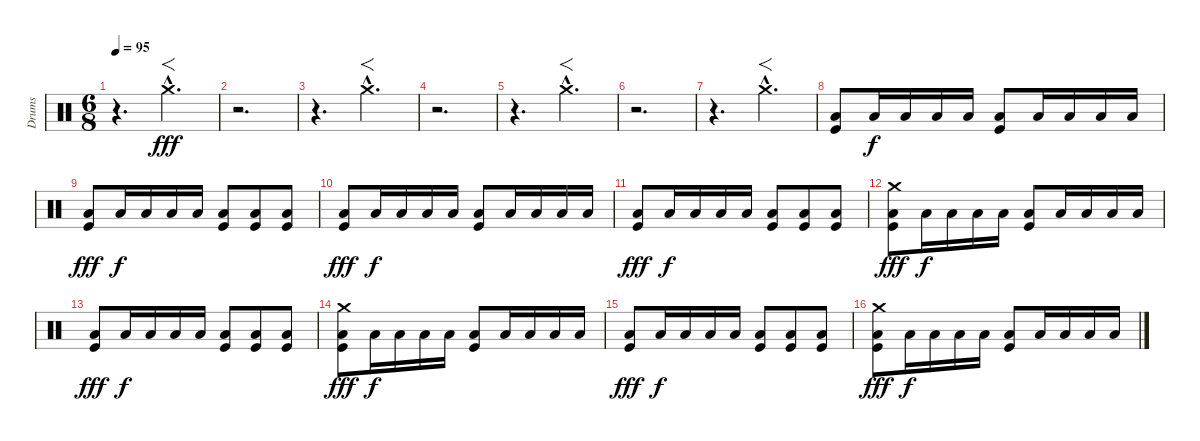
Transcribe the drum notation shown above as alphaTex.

\track ("Drums" "Drums") {instrument percussion}
\staff {score}
\articulation defaults
\ts (6 8)
\tempo 95
\clef neutral
\ks c
r.4{d dy fff} "Crash medium (hit)"{hac}.4{f d} |
r.2{d} |
r.4{d} "Crash medium (hit)"{hac}.4{f d} |
r.2{d} |
r.4{d} "Crash medium (hit)"{hac}.4{f d} |
r.2{d} |
r.4{d} "Crash medium (hit)"{hac}.4{f d} |
("Low Tom (hit)" "Kick (hit)").8 "Low Tom (hit)".16{dy f} "Low Tom (hit)".16 "Low Tom (hit)".16 "Low Tom (hit)".16 ("Low Tom (hit)" "Kick (hit)").8 "Low Tom (hit)".16 "Low Tom (hit)".16 "Low Tom (hit)".16 "Low Tom (hit)".16 |
("Low Tom (hit)" "Kick (hit)").8{dy fff} "Low Tom (hit)".16{dy f} "Low Tom (hit)".16 "Low Tom (hit)".16 "Low Tom (hit)".16 ("Low Tom (hit)" "Kick (hit)").8 ("Low Tom (hit)" "Kick (hit)").8 ("Low Tom (hit)" "Kick (hit)").8 |
("Low Tom (hit)" "Kick (hit)").8{dy fff} "Low Tom (hit)".16{dy f} "Low Tom (hit)".16 "Low Tom (hit)".16 "Low Tom (hit)".16 ("Low Tom (hit)" "Kick (hit)").8 "Low Tom (hit)".16 "Low Tom (hit)".16 "Low Tom (hit)".16 "Low Tom (hit)".16 |
("Low Tom (hit)" "Kick (hit)").8{dy fff} "Low Tom (hit)".16{dy f} "Low Tom (hit)".16 "Low Tom (hit)".16 "Low Tom (hit)".16 ("Low Tom (hit)" "Kick (hit)").8 ("Low Tom (hit)" "Kick (hit)").8 ("Low Tom (hit)" "Kick (hit)").8 |
("Crash medium (hit)" "Low Tom (hit)" "Kick (hit)").8{dy fff} "Low Tom (hit)".16{dy f} "Low Tom (hit)".16 "Low Tom (hit)".16 "Low Tom (hit)".16 ("Low Tom (hit)" "Kick (hit)").8 "Low Tom (hit)".16 "Low Tom (hit)".16 "Low Tom (hit)".16 "Low Tom (hit)".16 |
("Low Tom (hit)" "Kick (hit)").8{dy fff} "Low Tom (hit)".16{dy f} "Low Tom (hit)".16 "Low Tom (hit)".16 "Low Tom (hit)".16 ("Low Tom (hit)" "Kick (hit)").8 ("Low Tom (hit)" "Kick (hit)").8 ("Low Tom (hit)" "Kick (hit)").8 |
("Crash medium (hit)" "Low Tom (hit)" "Kick (hit)").8{dy fff} "Low Tom (hit)".16{dy f} "Low Tom (hit)".16 "Low Tom (hit)".16 "Low Tom (hit)".16 ("Low Tom (hit)" "Kick (hit)").8 "Low Tom (hit)".16 "Low Tom (hit)".16 "Low Tom (hit)".16 "Low Tom (hit)".16 |
("Low Tom (hit)" "Kick (hit)").8{dy fff} "Low Tom (hit)".16{dy f} "Low Tom (hit)".16 "Low Tom (hit)".16 "Low Tom (hit)".16 ("Low Tom (hit)" "Kick (hit)").8 ("Low Tom (hit)" "Kick (hit)").8 ("Low Tom (hit)" "Kick (hit)").8 |
("Crash medium (hit)" "Low Tom (hit)" "Kick (hit)").8{dy fff} "Low Tom (hit)".16{dy f} "Low Tom (hit)".16 "Low Tom (hit)".16 "Low Tom (hit)".16 ("Low Tom (hit)" "Kick (hit)").8 "Low Tom (hit)".16 "Low Tom (hit)".16 "Low Tom (hit)".16 "Low Tom (hit)".16
